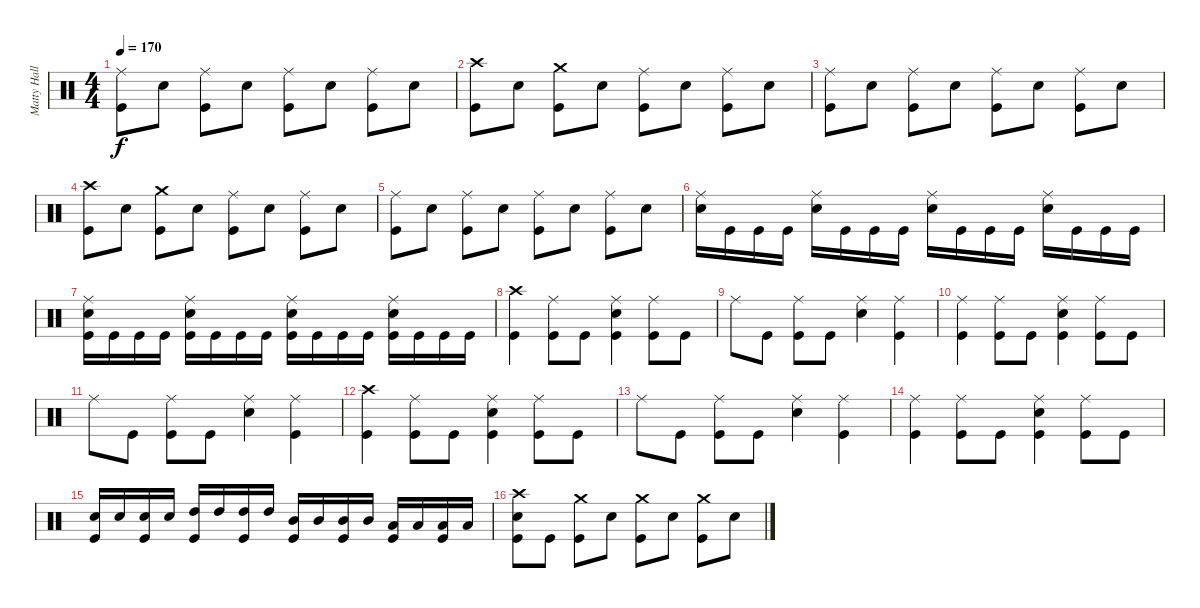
\track ("Matty Hallick - Drums" "Matty Hall") {instrument percussion}
\staff {score}
\articulation defaults
\ts (4 4)
\tempo 170
\clef neutral
\ks c
("Ride (middle)" "Kick (hit)").8{dy f} "Snare (hit) 2".8 ("Ride (middle)" "Kick (hit)").8 "Snare (hit) 2".8 ("Ride (middle)" "Kick (hit)").8 "Snare (hit) 2".8 ("Ride (middle)" "Kick (hit)").8 "Snare (hit) 2".8 |
("Crash high (hit)" "Kick (hit)").8 "Snare (hit) 2".8 ("Crash medium (hit)" "Kick (hit)").8 "Snare (hit) 2".8 ("Ride (middle)" "Kick (hit)").8 "Snare (hit) 2".8 ("Ride (middle)" "Kick (hit)").8 "Snare (hit) 2".8 |
("Ride (middle)" "Kick (hit)").8 "Snare (hit) 2".8 ("Ride (middle)" "Kick (hit)").8 "Snare (hit) 2".8 ("Ride (middle)" "Kick (hit)").8 "Snare (hit) 2".8 ("Ride (middle)" "Kick (hit)").8 "Snare (hit) 2".8 |
("Crash high (hit)" "Kick (hit)").8 "Snare (hit) 2".8 ("Crash medium (hit)" "Kick (hit)").8 "Snare (hit) 2".8 ("Ride (middle)" "Kick (hit)").8 "Snare (hit) 2".8 ("Ride (middle)" "Kick (hit)").8 "Snare (hit) 2".8 |
("Ride (middle)" "Kick (hit)").8 "Snare (hit) 2".8 ("Ride (middle)" "Kick (hit)").8 "Snare (hit) 2".8 ("Ride (middle)" "Kick (hit)").8 "Snare (hit) 2".8 ("Ride (middle)" "Kick (hit)").8 "Snare (hit) 2".8 |
("Ride (middle)" "Snare (hit) 2").16 "Kick (hit)".16 "Kick (hit)".16 "Kick (hit)".16 ("Ride (middle)" "Snare (hit) 2").16 "Kick (hit)".16 "Kick (hit)".16 "Kick (hit)".16 ("Ride (middle)" "Snare (hit) 2").16 "Kick (hit)".16 "Kick (hit)".16 "Kick (hit)".16 ("Ride (middle)" "Snare (hit) 2").16 "Kick (hit)".16 "Kick (hit)".16 "Kick (hit)".16 |
("Ride (middle)" "Snare (hit) 2" "Kick (hit)").16 "Kick (hit)".16 "Kick (hit)".16 "Kick (hit)".16 ("Ride (middle)" "Snare (hit) 2" "Kick (hit)").16 "Kick (hit)".16 "Kick (hit)".16 "Kick (hit)".16 ("Ride (middle)" "Snare (hit) 2" "Kick (hit)").16 "Kick (hit)".16 "Kick (hit)".16 "Kick (hit)".16 ("Ride (middle)" "Snare (hit) 2" "Kick (hit)").16 "Kick (hit)".16 "Kick (hit)".16 "Kick (hit)".16 |
("Crash high (hit)" "Kick (hit)").4 ("Ride (middle)" "Kick (hit)").8 "Kick (hit)".8 ("Ride (middle)" "Snare (hit) 2" "Kick (hit)").4 ("Ride (middle)" "Kick (hit)").8 "Kick (hit)".8 |
"Ride (middle)".8 "Kick (hit)".8 ("Ride (middle)" "Kick (hit)").8 "Kick (hit)".8 ("Ride (middle)" "Snare (hit) 2").4 ("Ride (middle)" "Kick (hit)").4 |
("Ride (middle)" "Kick (hit)").4 ("Ride (middle)" "Kick (hit)").8 "Kick (hit)".8 ("Ride (middle)" "Snare (hit) 2" "Kick (hit)").4 ("Ride (middle)" "Kick (hit)").8 "Kick (hit)".8 |
"Ride (middle)".8 "Kick (hit)".8 ("Ride (middle)" "Kick (hit)").8 "Kick (hit)".8 ("Ride (middle)" "Snare (hit) 2").4 ("Ride (middle)" "Kick (hit)").4 |
("Crash high (hit)" "Kick (hit)").4 ("Ride (middle)" "Kick (hit)").8 "Kick (hit)".8 ("Ride (middle)" "Snare (hit) 2" "Kick (hit)").4 ("Ride (middle)" "Kick (hit)").8 "Kick (hit)".8 |
"Ride (middle)".8 "Kick (hit)".8 ("Ride (middle)" "Kick (hit)").8 "Kick (hit)".8 ("Ride (middle)" "Snare (hit) 2").4 ("Ride (middle)" "Kick (hit)").4 |
("Ride (middle)" "Kick (hit)").4 ("Ride (middle)" "Kick (hit)").8 "Kick (hit)".8 ("Ride (middle)" "Snare (hit) 2" "Kick (hit)").4 ("Ride (middle)" "Kick (hit)").8 "Kick (hit)".8 |
("Snare (hit) 2" "Kick (hit)").16 "Snare (hit) 2".16 ("Snare (hit) 2" "Kick (hit)").16 "Snare (hit) 2".16 ("High Tom (hit)" "Kick (hit)").16 "High Tom (hit)".16 ("High Tom (hit)" "Kick (hit)").16 "High Tom (hit)".16 ("Mid Tom (hit)" "Kick (hit)").16 "Mid Tom (hit)".16 ("Mid Tom (hit)" "Kick (hit)").16 "Mid Tom (hit)".16 ("Low Tom (hit)" "Kick (hit)").16 "Low Tom (hit)".16 ("Low Tom (hit)" "Kick (hit)").16 "Low Tom (hit)".16 |
("Crash high (hit)" "Snare (hit) 2" "Kick (hit)").8 "Kick (hit)".8 ("Crash medium (hit)" "Kick (hit)").8 "Snare (hit) 2".8 ("Crash medium (hit)" "Kick (hit)").8 "Snare (hit) 2".8 ("Crash medium (hit)" "Kick (hit)").8 "Snare (hit) 2".8
